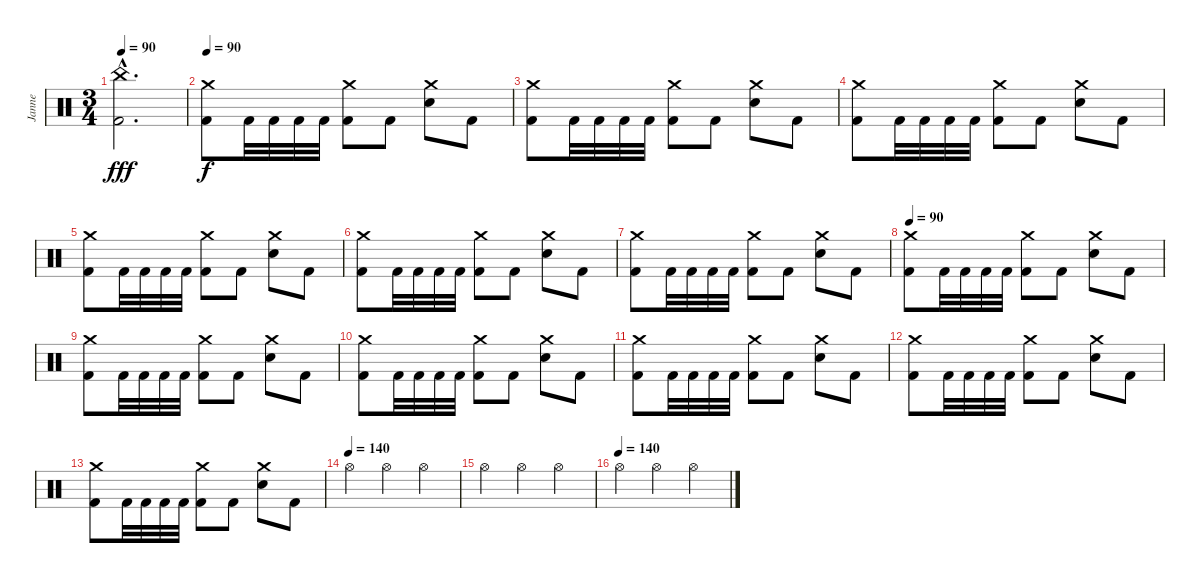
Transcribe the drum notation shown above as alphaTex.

\track ("Janne" "Janne") {instrument percussion}
\staff {score}
\articulation defaults
\ts (3 4)
\tempo 90
\clef neutral
\ks c
("China (hit)"{hac} "Kick (hit) 2"{hac}).2{d dy fff} |
\tempo 90
("Crash medium (hit)" "Kick (hit) 2").8{dy f} "Kick (hit) 2".32 "Kick (hit) 2".32 "Kick (hit) 2".32 "Kick (hit) 2".32 ("Crash medium (hit)" "Kick (hit) 2").8 "Kick (hit) 2".8 ("Crash medium (hit)" "Electric Snare (hit)").8 "Kick (hit) 2".8 |
("Crash medium (hit)" "Kick (hit) 2").8 "Kick (hit) 2".32 "Kick (hit) 2".32 "Kick (hit) 2".32 "Kick (hit) 2".32 ("Crash medium (hit)" "Kick (hit) 2").8 "Kick (hit) 2".8 ("Crash medium (hit)" "Electric Snare (hit)").8 "Kick (hit) 2".8 |
("Crash medium (hit)" "Kick (hit) 2").8 "Kick (hit) 2".32 "Kick (hit) 2".32 "Kick (hit) 2".32 "Kick (hit) 2".32 ("Crash medium (hit)" "Kick (hit) 2").8 "Kick (hit) 2".8 ("Crash medium (hit)" "Electric Snare (hit)").8 "Kick (hit) 2".8 |
("Crash medium (hit)" "Kick (hit) 2").8 "Kick (hit) 2".32 "Kick (hit) 2".32 "Kick (hit) 2".32 "Kick (hit) 2".32 ("Crash medium (hit)" "Kick (hit) 2").8 "Kick (hit) 2".8 ("Crash medium (hit)" "Electric Snare (hit)").8 "Kick (hit) 2".8 |
("Crash medium (hit)" "Kick (hit) 2").8 "Kick (hit) 2".32 "Kick (hit) 2".32 "Kick (hit) 2".32 "Kick (hit) 2".32 ("Crash medium (hit)" "Kick (hit) 2").8 "Kick (hit) 2".8 ("Crash medium (hit)" "Electric Snare (hit)").8 "Kick (hit) 2".8 |
("Crash medium (hit)" "Kick (hit) 2").8 "Kick (hit) 2".32 "Kick (hit) 2".32 "Kick (hit) 2".32 "Kick (hit) 2".32 ("Crash medium (hit)" "Kick (hit) 2").8 "Kick (hit) 2".8 ("Crash medium (hit)" "Electric Snare (hit)").8 "Kick (hit) 2".8 |
\tempo 90
("Crash medium (hit)" "Kick (hit) 2").8 "Kick (hit) 2".32 "Kick (hit) 2".32 "Kick (hit) 2".32 "Kick (hit) 2".32 ("Crash medium (hit)" "Kick (hit) 2").8 "Kick (hit) 2".8 ("Crash medium (hit)" "Electric Snare (hit)").8 "Kick (hit) 2".8 |
("Crash medium (hit)" "Kick (hit) 2").8 "Kick (hit) 2".32 "Kick (hit) 2".32 "Kick (hit) 2".32 "Kick (hit) 2".32 ("Crash medium (hit)" "Kick (hit) 2").8 "Kick (hit) 2".8 ("Crash medium (hit)" "Electric Snare (hit)").8 "Kick (hit) 2".8 |
("Crash medium (hit)" "Kick (hit) 2").8 "Kick (hit) 2".32 "Kick (hit) 2".32 "Kick (hit) 2".32 "Kick (hit) 2".32 ("Crash medium (hit)" "Kick (hit) 2").8 "Kick (hit) 2".8 ("Crash medium (hit)" "Electric Snare (hit)").8 "Kick (hit) 2".8 |
("Crash medium (hit)" "Kick (hit) 2").8 "Kick (hit) 2".32 "Kick (hit) 2".32 "Kick (hit) 2".32 "Kick (hit) 2".32 ("Crash medium (hit)" "Kick (hit) 2").8 "Kick (hit) 2".8 ("Crash medium (hit)" "Electric Snare (hit)").8 "Kick (hit) 2".8 |
("Crash medium (hit)" "Kick (hit) 2").8 "Kick (hit) 2".32 "Kick (hit) 2".32 "Kick (hit) 2".32 "Kick (hit) 2".32 ("Crash medium (hit)" "Kick (hit) 2").8 "Kick (hit) 2".8 ("Crash medium (hit)" "Electric Snare (hit)").8 "Kick (hit) 2".8 |
("Crash medium (hit)" "Kick (hit) 2").8 "Kick (hit) 2".32 "Kick (hit) 2".32 "Kick (hit) 2".32 "Kick (hit) 2".32 ("Crash medium (hit)" "Kick (hit) 2").8 "Kick (hit) 2".8 ("Crash medium (hit)" "Electric Snare (hit)").8 "Kick (hit) 2".8 |
\tempo (140)
"Hi-Hat (open)".4 "Hi-Hat (open)".4 "Hi-Hat (open)".4 |
"Hi-Hat (open)".4 "Hi-Hat (open)".4 "Hi-Hat (open)".4 |
\tempo (140)
"Hi-Hat (open)".4 "Hi-Hat (open)".4 "Hi-Hat (open)".4
